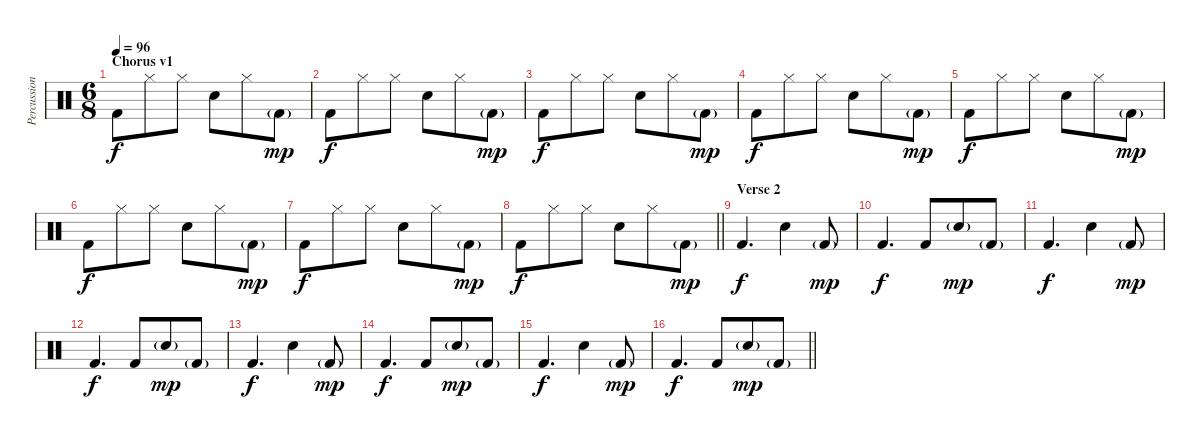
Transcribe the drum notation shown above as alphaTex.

\track ("Percussion" "Percussion") {instrument percussion}
\staff {score}
\articulation defaults
\ts (6 8)
\section ("" "Chorus v1")
\tempo 96
\clef neutral
\ks c "Kick (hit) 2".8{dy f} "Hi-Hat (closed)".8 "Hi-Hat (closed)".8 "Snare (hit) 2".8 "Hi-Hat (closed)".8 "Kick (hit) 2"{g}.8{dy mp}
|
"Kick (hit) 2".8{dy f} "Hi-Hat (closed)".8 "Hi-Hat (closed)".8 "Snare (hit) 2".8 "Hi-Hat (closed)".8 "Kick (hit) 2"{g}.8{dy mp} |
"Kick (hit) 2".8{dy f} "Hi-Hat (closed)".8 "Hi-Hat (closed)".8 "Snare (hit) 2".8 "Hi-Hat (closed)".8 "Kick (hit) 2"{g}.8{dy mp} |
"Kick (hit) 2".8{dy f} "Hi-Hat (closed)".8 "Hi-Hat (closed)".8 "Snare (hit) 2".8 "Hi-Hat (closed)".8 "Kick (hit) 2"{g}.8{dy mp} |
"Kick (hit) 2".8{dy f} "Hi-Hat (closed)".8 "Hi-Hat (closed)".8 "Snare (hit) 2".8 "Hi-Hat (closed)".8 "Kick (hit) 2"{g}.8{dy mp} |
"Kick (hit) 2".8{dy f} "Hi-Hat (closed)".8 "Hi-Hat (closed)".8 "Snare (hit) 2".8 "Hi-Hat (closed)".8 "Kick (hit) 2"{g}.8{dy mp} |
"Kick (hit) 2".8{dy f} "Hi-Hat (closed)".8 "Hi-Hat (closed)".8 "Snare (hit) 2".8 "Hi-Hat (closed)".8 "Kick (hit) 2"{g}.8{dy mp} |
\barLineRight lightlight "Kick (hit) 2".8{dy f} "Hi-Hat (closed)".8 "Hi-Hat (closed)".8 "Snare (hit) 2".8 "Hi-Hat (closed)".8 "Kick (hit) 2"{g}.8{dy mp}
|
\section ("" "Verse 2")
"Kick (hit) 2".4{d dy f} "Snare (hit) 2".4 "Kick (hit) 2"{g}.8{dy mp} |
"Kick (hit) 2".4{d dy f} "Kick (hit) 2".8 "Snare (hit) 2"{g}.8{dy mp} "Kick (hit) 2"{g}.8 |
"Kick (hit) 2".4{d dy f} "Snare (hit) 2".4 "Kick (hit) 2"{g}.8{dy mp} |
"Kick (hit) 2".4{d dy f} "Kick (hit) 2".8 "Snare (hit) 2"{g}.8{dy mp} "Kick (hit) 2"{g}.8 |
"Kick (hit) 2".4{d dy f} "Snare (hit) 2".4 "Kick (hit) 2"{g}.8{dy mp} |
"Kick (hit) 2".4{d dy f} "Kick (hit) 2".8 "Snare (hit) 2"{g}.8{dy mp} "Kick (hit) 2"{g}.8 |
"Kick (hit) 2".4{d dy f} "Snare (hit) 2".4 "Kick (hit) 2"{g}.8{dy mp} |
\barLineRight lightlight "Kick (hit) 2".4{d dy f} "Kick (hit) 2".8 "Snare (hit) 2"{g}.8{dy mp} "Kick (hit) 2"{g}.8
